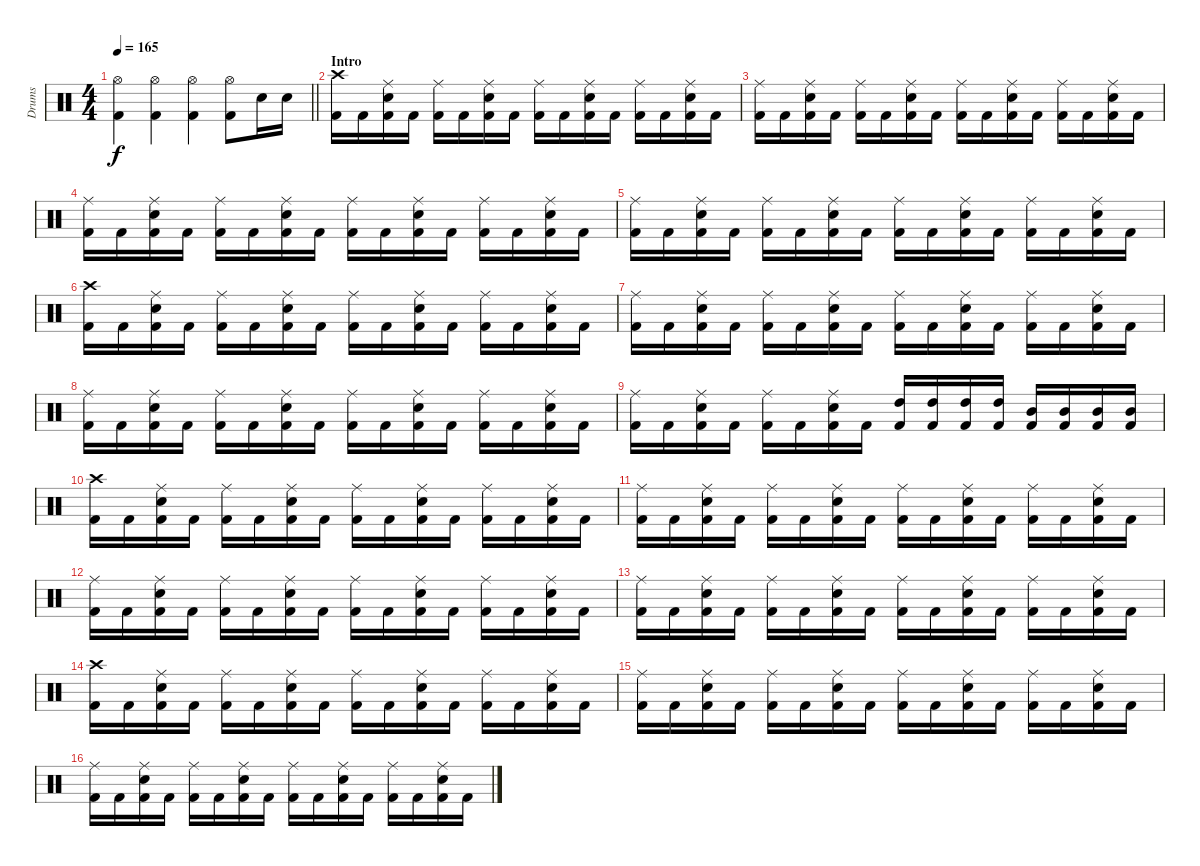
\track ("Drums" "Drums") {instrument percussion}
\staff {score}
\articulation defaults
\ts (4 4)
\tempo 165
\clef neutral
\barLineRight lightlight
\ks c
("Hi-Hat (open)" "Kick (hit) 2").4{dy f} ("Hi-Hat (open)" "Kick (hit) 2").4 ("Hi-Hat (open)" "Kick (hit) 2").4 ("Hi-Hat (open)" "Kick (hit) 2").8 "Electric Snare (hit)".16 "Electric Snare (hit)".16 |
\section ("" "Intro")
("Crash high (hit)" "Kick (hit) 2").16 "Kick (hit) 2".16 ("Ride (middle)" "Electric Snare (hit)" "Kick (hit) 2").16 "Kick (hit) 2".16 ("Ride (middle)" "Kick (hit) 2").16 "Kick (hit) 2".16 ("Ride (middle)" "Electric Snare (hit)" "Kick (hit) 2").16 "Kick (hit) 2".16 ("Ride (middle)" "Kick (hit) 2").16 "Kick (hit) 2".16 ("Ride (middle)" "Electric Snare (hit)" "Kick (hit) 2").16 "Kick (hit) 2".16 ("Ride (middle)" "Kick (hit) 2").16 "Kick (hit) 2".16 ("Ride (middle)" "Electric Snare (hit)" "Kick (hit) 2").16 "Kick (hit) 2".16 |
("Ride (middle)" "Kick (hit) 2").16 "Kick (hit) 2".16 ("Ride (middle)" "Electric Snare (hit)" "Kick (hit) 2").16 "Kick (hit) 2".16 ("Ride (middle)" "Kick (hit) 2").16 "Kick (hit) 2".16 ("Ride (middle)" "Electric Snare (hit)" "Kick (hit) 2").16 "Kick (hit) 2".16 ("Ride (middle)" "Kick (hit) 2").16 "Kick (hit) 2".16 ("Ride (middle)" "Electric Snare (hit)" "Kick (hit) 2").16 "Kick (hit) 2".16 ("Ride (middle)" "Kick (hit) 2").16 "Kick (hit) 2".16 ("Ride (middle)" "Electric Snare (hit)" "Kick (hit) 2").16 "Kick (hit) 2".16 |
("Ride (middle)" "Kick (hit) 2").16 "Kick (hit) 2".16 ("Ride (middle)" "Electric Snare (hit)" "Kick (hit) 2").16 "Kick (hit) 2".16 ("Ride (middle)" "Kick (hit) 2").16 "Kick (hit) 2".16 ("Ride (middle)" "Electric Snare (hit)" "Kick (hit) 2").16 "Kick (hit) 2".16 ("Ride (middle)" "Kick (hit) 2").16 "Kick (hit) 2".16 ("Ride (middle)" "Electric Snare (hit)" "Kick (hit) 2").16 "Kick (hit) 2".16 ("Ride (middle)" "Kick (hit) 2").16 "Kick (hit) 2".16 ("Ride (middle)" "Electric Snare (hit)" "Kick (hit) 2").16 "Kick (hit) 2".16 |
("Ride (middle)" "Kick (hit) 2").16 "Kick (hit) 2".16 ("Ride (middle)" "Electric Snare (hit)" "Kick (hit) 2").16 "Kick (hit) 2".16 ("Ride (middle)" "Kick (hit) 2").16 "Kick (hit) 2".16 ("Ride (middle)" "Electric Snare (hit)" "Kick (hit) 2").16 "Kick (hit) 2".16 ("Ride (middle)" "Kick (hit) 2").16 "Kick (hit) 2".16 ("Ride (middle)" "Electric Snare (hit)" "Kick (hit) 2").16 "Kick (hit) 2".16 ("Ride (middle)" "Kick (hit) 2").16 "Kick (hit) 2".16 ("Ride (middle)" "Electric Snare (hit)" "Kick (hit) 2").16 "Kick (hit) 2".16 |
("Crash high (hit)" "Kick (hit) 2").16 "Kick (hit) 2".16 ("Ride (middle)" "Electric Snare (hit)" "Kick (hit) 2").16 "Kick (hit) 2".16 ("Ride (middle)" "Kick (hit) 2").16 "Kick (hit) 2".16 ("Ride (middle)" "Electric Snare (hit)" "Kick (hit) 2").16 "Kick (hit) 2".16 ("Ride (middle)" "Kick (hit) 2").16 "Kick (hit) 2".16 ("Ride (middle)" "Electric Snare (hit)" "Kick (hit) 2").16 "Kick (hit) 2".16 ("Ride (middle)" "Kick (hit) 2").16 "Kick (hit) 2".16 ("Ride (middle)" "Electric Snare (hit)" "Kick (hit) 2").16 "Kick (hit) 2".16 |
("Ride (middle)" "Kick (hit) 2").16 "Kick (hit) 2".16 ("Ride (middle)" "Electric Snare (hit)" "Kick (hit) 2").16 "Kick (hit) 2".16 ("Ride (middle)" "Kick (hit) 2").16 "Kick (hit) 2".16 ("Ride (middle)" "Electric Snare (hit)" "Kick (hit) 2").16 "Kick (hit) 2".16 ("Ride (middle)" "Kick (hit) 2").16 "Kick (hit) 2".16 ("Ride (middle)" "Electric Snare (hit)" "Kick (hit) 2").16 "Kick (hit) 2".16 ("Ride (middle)" "Kick (hit) 2").16 "Kick (hit) 2".16 ("Ride (middle)" "Electric Snare (hit)" "Kick (hit) 2").16 "Kick (hit) 2".16 |
("Ride (middle)" "Kick (hit) 2").16 "Kick (hit) 2".16 ("Ride (middle)" "Electric Snare (hit)" "Kick (hit) 2").16 "Kick (hit) 2".16 ("Ride (middle)" "Kick (hit) 2").16 "Kick (hit) 2".16 ("Ride (middle)" "Electric Snare (hit)" "Kick (hit) 2").16 "Kick (hit) 2".16 ("Ride (middle)" "Kick (hit) 2").16 "Kick (hit) 2".16 ("Ride (middle)" "Electric Snare (hit)" "Kick (hit) 2").16 "Kick (hit) 2".16 ("Ride (middle)" "Kick (hit) 2").16 "Kick (hit) 2".16 ("Ride (middle)" "Electric Snare (hit)" "Kick (hit) 2").16 "Kick (hit) 2".16 |
("Ride (middle)" "Kick (hit) 2").16 "Kick (hit) 2".16 ("Ride (middle)" "Electric Snare (hit)" "Kick (hit) 2").16 "Kick (hit) 2".16 ("Ride (middle)" "Kick (hit) 2").16 "Kick (hit) 2".16 ("Ride (middle)" "Electric Snare (hit)" "Kick (hit) 2").16 "Kick (hit) 2".16 ("High Tom (hit)" "Kick (hit) 2").16 ("High Tom (hit)" "Kick (hit) 2").16 ("High Tom (hit)" "Kick (hit) 2").16 ("High Tom (hit)" "Kick (hit) 2").16 ("Mid Tom (hit)" "Kick (hit) 2").16 ("Mid Tom (hit)" "Kick (hit) 2").16 ("Mid Tom (hit)" "Kick (hit) 2").16 ("Mid Tom (hit)" "Kick (hit) 2").16 |
("Crash high (hit)" "Kick (hit) 2").16 "Kick (hit) 2".16 ("Ride (middle)" "Electric Snare (hit)" "Kick (hit) 2").16 "Kick (hit) 2".16 ("Ride (middle)" "Kick (hit) 2").16 "Kick (hit) 2".16 ("Ride (middle)" "Electric Snare (hit)" "Kick (hit) 2").16 "Kick (hit) 2".16 ("Ride (middle)" "Kick (hit) 2").16 "Kick (hit) 2".16 ("Ride (middle)" "Electric Snare (hit)" "Kick (hit) 2").16 "Kick (hit) 2".16 ("Ride (middle)" "Kick (hit) 2").16 "Kick (hit) 2".16 ("Ride (middle)" "Electric Snare (hit)" "Kick (hit) 2").16 "Kick (hit) 2".16 |
("Ride (middle)" "Kick (hit) 2").16 "Kick (hit) 2".16 ("Ride (middle)" "Electric Snare (hit)" "Kick (hit) 2").16 "Kick (hit) 2".16 ("Ride (middle)" "Kick (hit) 2").16 "Kick (hit) 2".16 ("Ride (middle)" "Electric Snare (hit)" "Kick (hit) 2").16 "Kick (hit) 2".16 ("Ride (middle)" "Kick (hit) 2").16 "Kick (hit) 2".16 ("Ride (middle)" "Electric Snare (hit)" "Kick (hit) 2").16 "Kick (hit) 2".16 ("Ride (middle)" "Kick (hit) 2").16 "Kick (hit) 2".16 ("Ride (middle)" "Electric Snare (hit)" "Kick (hit) 2").16 "Kick (hit) 2".16 |
("Ride (middle)" "Kick (hit) 2").16 "Kick (hit) 2".16 ("Ride (middle)" "Electric Snare (hit)" "Kick (hit) 2").16 "Kick (hit) 2".16 ("Ride (middle)" "Kick (hit) 2").16 "Kick (hit) 2".16 ("Ride (middle)" "Electric Snare (hit)" "Kick (hit) 2").16 "Kick (hit) 2".16 ("Ride (middle)" "Kick (hit) 2").16 "Kick (hit) 2".16 ("Ride (middle)" "Electric Snare (hit)" "Kick (hit) 2").16 "Kick (hit) 2".16 ("Ride (middle)" "Kick (hit) 2").16 "Kick (hit) 2".16 ("Ride (middle)" "Electric Snare (hit)" "Kick (hit) 2").16 "Kick (hit) 2".16 |
("Ride (middle)" "Kick (hit) 2").16 "Kick (hit) 2".16 ("Ride (middle)" "Electric Snare (hit)" "Kick (hit) 2").16 "Kick (hit) 2".16 ("Ride (middle)" "Kick (hit) 2").16 "Kick (hit) 2".16 ("Ride (middle)" "Electric Snare (hit)" "Kick (hit) 2").16 "Kick (hit) 2".16 ("Ride (middle)" "Kick (hit) 2").16 "Kick (hit) 2".16 ("Ride (middle)" "Electric Snare (hit)" "Kick (hit) 2").16 "Kick (hit) 2".16 ("Ride (middle)" "Kick (hit) 2").16 "Kick (hit) 2".16 ("Ride (middle)" "Electric Snare (hit)" "Kick (hit) 2").16 "Kick (hit) 2".16 |
("Crash high (hit)" "Kick (hit) 2").16 "Kick (hit) 2".16 ("Ride (middle)" "Electric Snare (hit)" "Kick (hit) 2").16 "Kick (hit) 2".16 ("Ride (middle)" "Kick (hit) 2").16 "Kick (hit) 2".16 ("Ride (middle)" "Electric Snare (hit)" "Kick (hit) 2").16 "Kick (hit) 2".16 ("Ride (middle)" "Kick (hit) 2").16 "Kick (hit) 2".16 ("Ride (middle)" "Electric Snare (hit)" "Kick (hit) 2").16 "Kick (hit) 2".16 ("Ride (middle)" "Kick (hit) 2").16 "Kick (hit) 2".16 ("Ride (middle)" "Electric Snare (hit)" "Kick (hit) 2").16 "Kick (hit) 2".16 |
("Ride (middle)" "Kick (hit) 2").16 "Kick (hit) 2".16 ("Ride (middle)" "Electric Snare (hit)" "Kick (hit) 2").16 "Kick (hit) 2".16 ("Ride (middle)" "Kick (hit) 2").16 "Kick (hit) 2".16 ("Ride (middle)" "Electric Snare (hit)" "Kick (hit) 2").16 "Kick (hit) 2".16 ("Ride (middle)" "Kick (hit) 2").16 "Kick (hit) 2".16 ("Ride (middle)" "Electric Snare (hit)" "Kick (hit) 2").16 "Kick (hit) 2".16 ("Ride (middle)" "Kick (hit) 2").16 "Kick (hit) 2".16 ("Ride (middle)" "Electric Snare (hit)" "Kick (hit) 2").16 "Kick (hit) 2".16 |
("Ride (middle)" "Kick (hit) 2").16 "Kick (hit) 2".16 ("Ride (middle)" "Electric Snare (hit)" "Kick (hit) 2").16 "Kick (hit) 2".16 ("Ride (middle)" "Kick (hit) 2").16 "Kick (hit) 2".16 ("Ride (middle)" "Electric Snare (hit)" "Kick (hit) 2").16 "Kick (hit) 2".16 ("Ride (middle)" "Kick (hit) 2").16 "Kick (hit) 2".16 ("Ride (middle)" "Electric Snare (hit)" "Kick (hit) 2").16 "Kick (hit) 2".16 ("Ride (middle)" "Kick (hit) 2").16 "Kick (hit) 2".16 ("Ride (middle)" "Electric Snare (hit)" "Kick (hit) 2").16 "Kick (hit) 2".16
